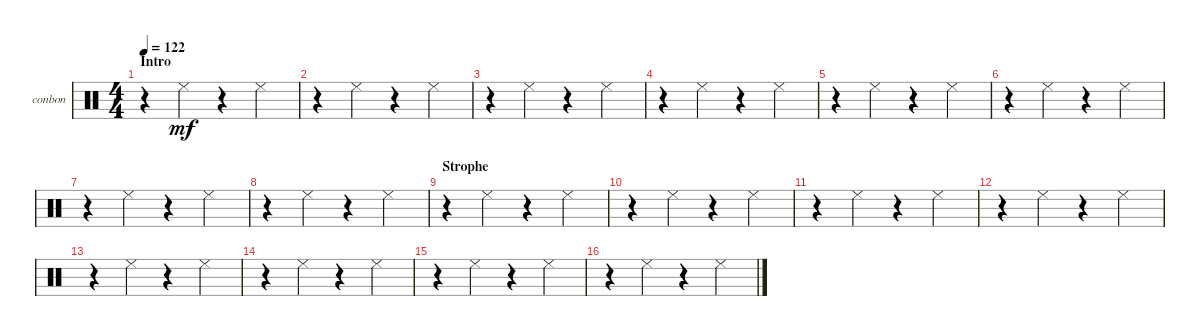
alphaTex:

\defaultSystemsLayout 4
\bracketExtendMode groupsimilarinstruments
\firstSystemTrackNameOrientation horizontal
\otherSystemsTrackNameOrientation horizontal
\track ("Bongos N Congas" "conbon") {instrument percussion}
\staff {score}
\articulation defaults
\ts (4 4)
\section ("" "Intro")
\tempo 122
\clef neutral
\ks c
r.4{dy mf} "Cowbell low (tip)".4 r.4 "Cowbell low (tip)".4 |
r.4 "Cowbell low (tip)".4 r.4 "Cowbell low (tip)".4 |
r.4 "Cowbell low (tip)".4 r.4 "Cowbell low (tip)".4 |
r.4 "Cowbell low (tip)".4 r.4 "Cowbell low (tip)".4 |
r.4 "Cowbell low (tip)".4 r.4 "Cowbell low (tip)".4 |
r.4 "Cowbell low (tip)".4 r.4 "Cowbell low (tip)".4 |
r.4 "Cowbell low (tip)".4 r.4 "Cowbell low (tip)".4 |
r.4 "Cowbell low (tip)".4 r.4 "Cowbell low (tip)".4 |
\section ("" "Strophe")
r.4 "Cowbell low (tip)".4 r.4 "Cowbell low (tip)".4 |
r.4 "Cowbell low (tip)".4 r.4 "Cowbell low (tip)".4 |
r.4 "Cowbell low (tip)".4 r.4 "Cowbell low (tip)".4 |
r.4 "Cowbell low (tip)".4 r.4 "Cowbell low (tip)".4 |
r.4 "Cowbell low (tip)".4 r.4 "Cowbell low (tip)".4 |
r.4 "Cowbell low (tip)".4 r.4 "Cowbell low (tip)".4 |
r.4 "Cowbell low (tip)".4 r.4 "Cowbell low (tip)".4 |
\scale
0.531977 r.4 "Cowbell low (tip)".4 r.4 "Cowbell low (tip)".4
